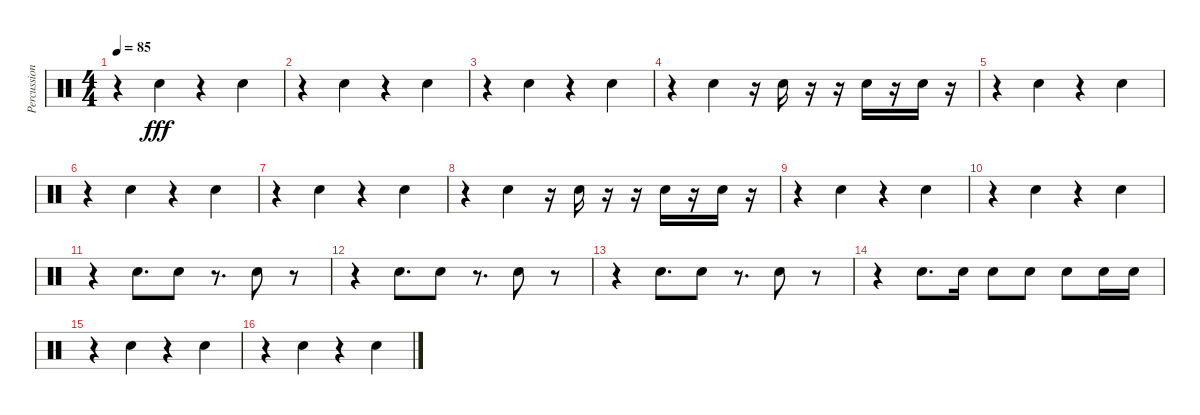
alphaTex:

\track ("Percussion" "Percussion") {instrument percussion}
\staff {score}
\articulation defaults
\ts (4 4)
\tempo 85
\clef neutral
\ks c
r.4{dy fff} "Snare (hit) 2".4 r.4 "Snare (hit) 2".4 |
r.4 "Snare (hit) 2".4 r.4 "Snare (hit) 2".4 |
r.4 "Snare (hit) 2".4 r.4 "Snare (hit) 2".4 |
r.4 "Snare (hit) 2".4 r.16 "Snare (hit) 2".16 r.16 r.16 "Snare (hit) 2".16 r.16 "Snare (hit) 2".16 r.16 |
r.4 "Snare (hit) 2".4 r.4 "Snare (hit) 2".4 |
r.4 "Snare (hit) 2".4 r.4 "Snare (hit) 2".4 |
r.4 "Snare (hit) 2".4 r.4 "Snare (hit) 2".4 |
r.4 "Snare (hit) 2".4 r.16 "Snare (hit) 2".16 r.16 r.16 "Snare (hit) 2".16 r.16 "Snare (hit) 2".16 r.16 |
r.4 "Snare (hit) 2".4 r.4 "Snare (hit) 2".4 |
r.4 "Snare (hit) 2".4 r.4 "Snare (hit) 2".4 |
r.4 "Snare (hit) 2".8{d} "Snare (hit) 2".8 r.8{d} "Snare (hit) 2".8 r.8 |
r.4 "Snare (hit) 2".8{d} "Snare (hit) 2".8 r.8{d} "Snare (hit) 2".8 r.8 |
r.4 "Snare (hit) 2".8{d} "Snare (hit) 2".8 r.8{d} "Snare (hit) 2".8 r.8 |
r.4 "Snare (hit) 2".8{d} "Snare (hit) 2".16 "Snare (hit) 2".8 "Snare (hit) 2".8 "Snare (hit) 2".8 "Snare (hit) 2".16 "Snare (hit) 2".16 |
r.4 "Snare (hit) 2".4 r.4 "Snare (hit) 2".4 |
r.4 "Snare (hit) 2".4 r.4 "Snare (hit) 2".4
